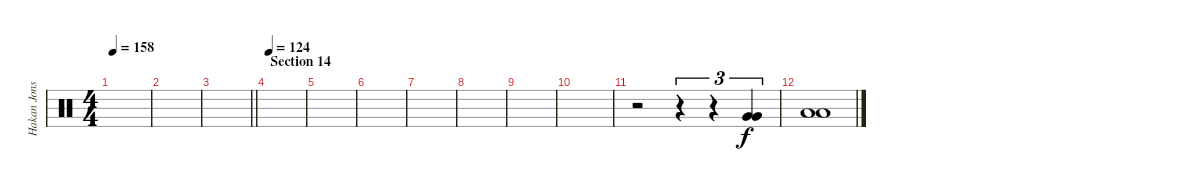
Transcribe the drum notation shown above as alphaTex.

\track ("Hakan Jonsson" "Hakan Jons") {instrument percussion}
\staff {score}
\articulation defaults
\ts (4 4)
\tempo 158
\clef neutral
\ks c
|
|
\barLineRight lightlight
|
\section ("" "Section 14")
\tempo 124
|
|
|
|
|
|
|
r.2 r.4{tu (3 2)} r.4{tu (3 2)} ("Very Low Tom (hit)" "Very Low Tom (hit)").4{tu (3 2)} |
("Low Tom (hit)" "Low Tom (hit)").1
